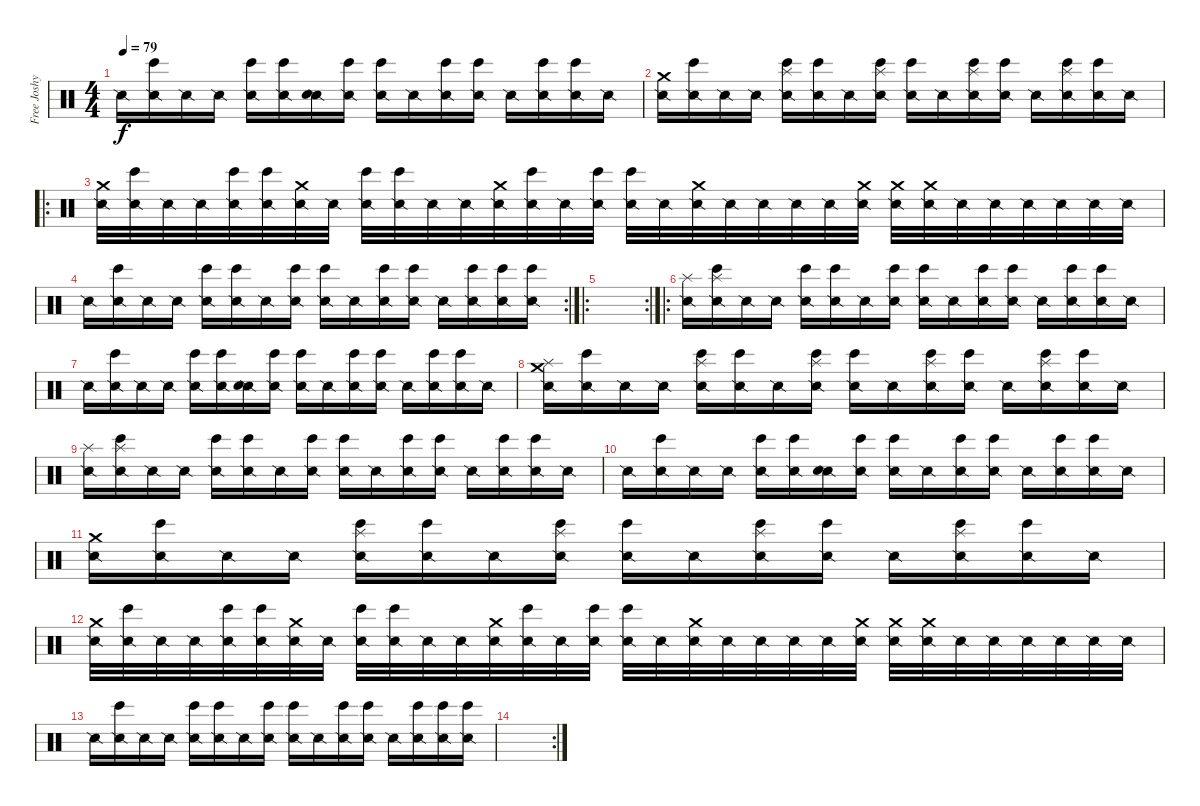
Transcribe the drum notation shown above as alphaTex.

\track ("Free Joshy" "Free Joshy") {instrument percussion}
\staff {score}
\articulation defaults
\ts (4 4)
\tempo 79
\clef neutral
\ks c "Snare (side stick) 2".16{dy f}
("Snare (side stick) 2" "Bongo High (hit)").16 "Snare (side stick) 2".16 "Snare (side stick) 2".16 ("Snare (side stick) 2" "Bongo High (hit)").16 ("Snare (side stick) 2" "Bongo High (hit)").16 ("Snare (side stick) 2" "Snare (hit)").16 ("Snare (side stick) 2" "Bongo High (hit)").16 ("Snare (side stick) 2" "Bongo High (hit)").16 "Snare (side stick) 2".16 ("Snare (side stick) 2" "Bongo High (hit)").16 ("Snare (side stick) 2" "Bongo High (hit)").16 "Snare (side stick) 2".16 ("Snare (side stick) 2" "Bongo High (hit)").16 ("Snare (side stick) 2" "Bongo High (hit)").16 "Snare (side stick) 2".16 |
("Snare (side stick) 2" "Crash medium (hit)").16 ("Snare (side stick) 2" "Bongo High (hit)").16 "Snare (side stick) 2".16 "Snare (side stick) 2".16 ("Snare (side stick) 2" "Bongo High (hit)" "Splash (hit)").16 ("Snare (side stick) 2" "Bongo High (hit)").16 "Snare (side stick) 2".16 ("Snare (side stick) 2" "Bongo High (hit)" "Splash (hit)").16 ("Snare (side stick) 2" "Bongo High (hit)").16 "Snare (side stick) 2".16 ("Snare (side stick) 2" "Bongo High (hit)" "Splash (hit)").16 ("Snare (side stick) 2" "Bongo High (hit)").16 "Snare (side stick) 2".16 ("Snare (side stick) 2" "Bongo High (hit)" "Splash (hit)").16 ("Snare (side stick) 2" "Bongo High (hit)").16 "Snare (side stick) 2".16 |
\ro
("Snare (side stick) 2" "Crash medium (hit)").32 ("Snare (side stick) 2" "Bongo High (hit)").32 "Snare (side stick) 2".32 "Snare (side stick) 2".32 ("Snare (side stick) 2" "Bongo High (hit)").32 ("Snare (side stick) 2" "Bongo High (hit)").32 ("Snare (side stick) 2" "Crash medium (hit)").32 "Snare (side stick) 2".32 ("Snare (side stick) 2" "Bongo High (hit)").32 ("Snare (side stick) 2" "Bongo High (hit)").32 "Snare (side stick) 2".32 "Snare (side stick) 2".32 ("Snare (side stick) 2" "Crash medium (hit)").32 ("Snare (side stick) 2" "Bongo High (hit)").32 "Snare (side stick) 2".32 ("Snare (side stick) 2" "Bongo High (hit)").32 ("Snare (side stick) 2" "Bongo High (hit)").32 "Snare (side stick) 2".32 ("Snare (side stick) 2" "Crash medium (hit)").32 "Snare (side stick) 2".32 "Snare (side stick) 2".32 "Snare (side stick) 2".32 "Snare (side stick) 2".32 ("Snare (side stick) 2" "Crash medium (hit)").32 ("Snare (side stick) 2" "Crash medium (hit)").32 ("Snare (side stick) 2" "Crash medium (hit)").32 "Snare (side stick) 2".32 "Snare (side stick) 2".32 "Snare (side stick) 2".32 "Snare (side stick) 2".32 "Snare (side stick) 2".32 "Snare (side stick) 2".32 |
\rc 2 "Snare (side stick) 2".16
("Snare (side stick) 2" "Bongo High (hit)").16 "Snare (side stick) 2".16 "Snare (side stick) 2".16 ("Snare (side stick) 2" "Bongo High (hit)").16 ("Snare (side stick) 2" "Bongo High (hit)").16 "Snare (side stick) 2".16 ("Snare (side stick) 2" "Bongo High (hit)").16 ("Snare (side stick) 2" "Bongo High (hit)").16 "Snare (side stick) 2".16 ("Snare (side stick) 2" "Bongo High (hit)").16 ("Snare (side stick) 2" "Bongo High (hit)").16 "Snare (side stick) 2".16 ("Snare (side stick) 2" "Bongo High (hit)").16 ("Snare (side stick) 2" "Bongo High (hit)").16 ("Snare (side stick) 2" "Bongo High (hit)").16 |
\ro
\rc 2
|
\ro
("Snare (side stick) 2" "Splash (hit)").16 ("Snare (side stick) 2" "Splash (hit)" "Bongo High (hit)").16 "Snare (side stick) 2".16 "Snare (side stick) 2".16 ("Snare (side stick) 2" "Bongo High (hit)").16 ("Snare (side stick) 2" "Bongo High (hit)").16 "Snare (side stick) 2".16 ("Snare (side stick) 2" "Bongo High (hit)").16 ("Snare (side stick) 2" "Bongo High (hit)").16 "Snare (side stick) 2".16 ("Snare (side stick) 2" "Bongo High (hit)").16 ("Snare (side stick) 2" "Bongo High (hit)").16 "Snare (side stick) 2".16 ("Snare (side stick) 2" "Bongo High (hit)").16 ("Snare (side stick) 2" "Bongo High (hit)").16 "Snare (side stick) 2".16 |
"Snare (side stick) 2".16 ("Snare (side stick) 2" "Bongo High (hit)").16 "Snare (side stick) 2".16 "Snare (side stick) 2".16 ("Snare (side stick) 2" "Bongo High (hit)").16 ("Snare (side stick) 2" "Bongo High (hit)").16 ("Snare (side stick) 2" "Snare (hit)").16 ("Snare (side stick) 2" "Bongo High (hit)").16 ("Snare (side stick) 2" "Bongo High (hit)").16 "Snare (side stick) 2".16 ("Snare (side stick) 2" "Bongo High (hit)").16 ("Snare (side stick) 2" "Bongo High (hit)").16 "Snare (side stick) 2".16 ("Snare (side stick) 2" "Bongo High (hit)").16 ("Snare (side stick) 2" "Bongo High (hit)").16 "Snare (side stick) 2".16 |
("Snare (side stick) 2" "Splash (hit)" "Crash medium (hit)").16 ("Snare (side stick) 2" "Bongo High (hit)").16 "Snare (side stick) 2".16 "Snare (side stick) 2".16 ("Snare (side stick) 2" "Bongo High (hit)" "Splash (hit)").16 ("Snare (side stick) 2" "Bongo High (hit)").16 "Snare (side stick) 2".16 ("Snare (side stick) 2" "Bongo High (hit)" "Splash (hit)").16 ("Snare (side stick) 2" "Bongo High (hit)").16 "Snare (side stick) 2".16 ("Snare (side stick) 2" "Bongo High (hit)" "Splash (hit)").16 ("Snare (side stick) 2" "Bongo High (hit)").16 "Snare (side stick) 2".16 ("Snare (side stick) 2" "Bongo High (hit)" "Splash (hit)").16 ("Snare (side stick) 2" "Bongo High (hit)").16 "Snare (side stick) 2".16 |
("Snare (side stick) 2" "Splash (hit)").16 ("Snare (side stick) 2" "Splash (hit)" "Bongo High (hit)").16 "Snare (side stick) 2".16 "Snare (side stick) 2".16 ("Snare (side stick) 2" "Bongo High (hit)").16 ("Snare (side stick) 2" "Bongo High (hit)").16 "Snare (side stick) 2".16 ("Snare (side stick) 2" "Bongo High (hit)").16 ("Snare (side stick) 2" "Bongo High (hit)").16 "Snare (side stick) 2".16 ("Snare (side stick) 2" "Bongo High (hit)").16 ("Snare (side stick) 2" "Bongo High (hit)").16 "Snare (side stick) 2".16 ("Snare (side stick) 2" "Bongo High (hit)").16 ("Snare (side stick) 2" "Bongo High (hit)").16 "Snare (side stick) 2".16 |
"Snare (side stick) 2".16 ("Snare (side stick) 2" "Bongo High (hit)").16 "Snare (side stick) 2".16 "Snare (side stick) 2".16 ("Snare (side stick) 2" "Bongo High (hit)").16 ("Snare (side stick) 2" "Bongo High (hit)").16 ("Snare (side stick) 2" "Snare (hit)").16 ("Snare (side stick) 2" "Bongo High (hit)").16 ("Snare (side stick) 2" "Bongo High (hit)").16 "Snare (side stick) 2".16 ("Snare (side stick) 2" "Bongo High (hit)").16 ("Snare (side stick) 2" "Bongo High (hit)").16 "Snare (side stick) 2".16 ("Snare (side stick) 2" "Bongo High (hit)").16 ("Snare (side stick) 2" "Bongo High (hit)").16 "Snare (side stick) 2".16 |
("Snare (side stick) 2" "Crash medium (hit)").16 ("Snare (side stick) 2" "Bongo High (hit)").16 "Snare (side stick) 2".16 "Snare (side stick) 2".16 ("Snare (side stick) 2" "Bongo High (hit)" "Splash (hit)").16 ("Snare (side stick) 2" "Bongo High (hit)").16 "Snare (side stick) 2".16 ("Snare (side stick) 2" "Bongo High (hit)" "Splash (hit)").16 ("Snare (side stick) 2" "Bongo High (hit)").16 "Snare (side stick) 2".16 ("Snare (side stick) 2" "Bongo High (hit)" "Splash (hit)").16 ("Snare (side stick) 2" "Bongo High (hit)").16 "Snare (side stick) 2".16 ("Snare (side stick) 2" "Bongo High (hit)" "Splash (hit)").16 ("Snare (side stick) 2" "Bongo High (hit)").16 "Snare (side stick) 2".16 |
("Snare (side stick) 2" "Crash medium (hit)").32 ("Snare (side stick) 2" "Bongo High (hit)").32 "Snare (side stick) 2".32 "Snare (side stick) 2".32 ("Snare (side stick) 2" "Bongo High (hit)").32 ("Snare (side stick) 2" "Bongo High (hit)").32 ("Snare (side stick) 2" "Crash medium (hit)").32 "Snare (side stick) 2".32 ("Snare (side stick) 2" "Bongo High (hit)").32 ("Snare (side stick) 2" "Bongo High (hit)").32 "Snare (side stick) 2".32 "Snare (side stick) 2".32 ("Snare (side stick) 2" "Crash medium (hit)").32 ("Snare (side stick) 2" "Bongo High (hit)").32 "Snare (side stick) 2".32 ("Snare (side stick) 2" "Bongo High (hit)").32 ("Snare (side stick) 2" "Bongo High (hit)").32 "Snare (side stick) 2".32 ("Snare (side stick) 2" "Crash medium (hit)").32 "Snare (side stick) 2".32 "Snare (side stick) 2".32 "Snare (side stick) 2".32 "Snare (side stick) 2".32 ("Snare (side stick) 2" "Crash medium (hit)").32 ("Snare (side stick) 2" "Crash medium (hit)").32 ("Snare (side stick) 2" "Crash medium (hit)").32 "Snare (side stick) 2".32 "Snare (side stick) 2".32 "Snare (side stick) 2".32 "Snare (side stick) 2".32 "Snare (side stick) 2".32 "Snare (side stick) 2".32 |
"Snare (side stick) 2".16 ("Snare (side stick) 2" "Bongo High (hit)").16 "Snare (side stick) 2".16 "Snare (side stick) 2".16 ("Snare (side stick) 2" "Bongo High (hit)").16 ("Snare (side stick) 2" "Bongo High (hit)").16 "Snare (side stick) 2".16 ("Snare (side stick) 2" "Bongo High (hit)").16 ("Snare (side stick) 2" "Bongo High (hit)").16 "Snare (side stick) 2".16 ("Snare (side stick) 2" "Bongo High (hit)").16 ("Snare (side stick) 2" "Bongo High (hit)").16 "Snare (side stick) 2".16 ("Snare (side stick) 2" "Bongo High (hit)").16 ("Snare (side stick) 2" "Bongo High (hit)").16 ("Snare (side stick) 2" "Bongo High (hit)").16 |
\rc 2
